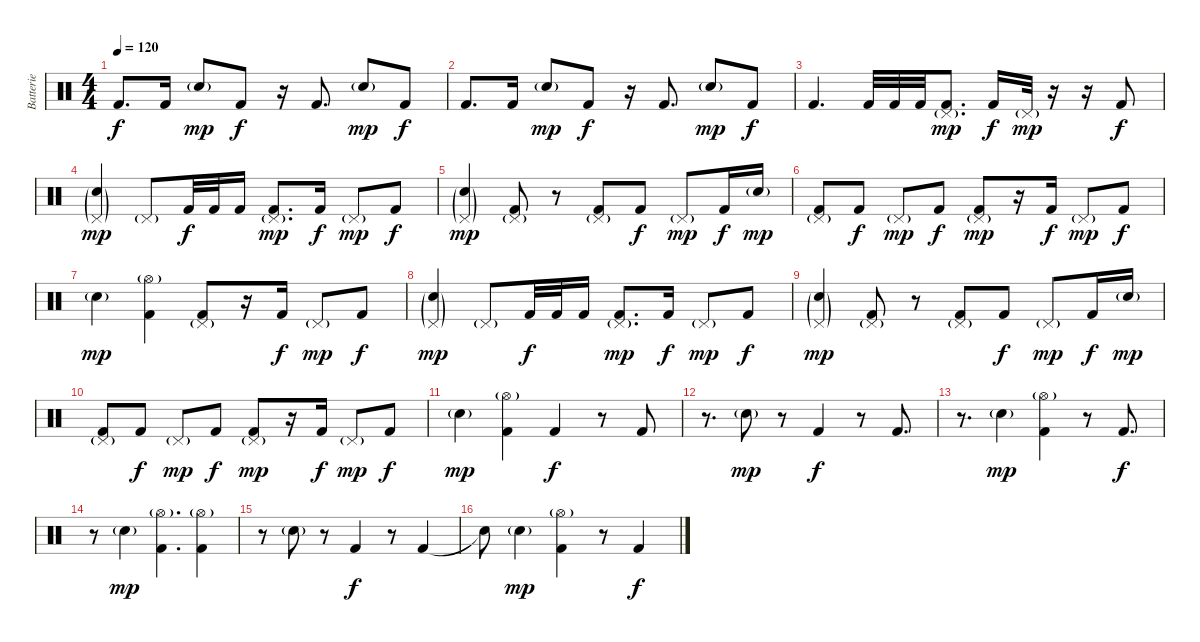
\track ("Batterie" "Batterie") {instrument percussion}
\staff {score}
\articulation defaults
\ts (4 4)
\tempo 120
\clef neutral
\ks c "Kick (hit) 2".8{d dy f} "Kick (hit) 2".16 "Electric Snare (hit)"{g}.8{dy mp} "Kick (hit) 2".8{dy f}
r.16 "Kick (hit) 2".8{d} "Electric Snare (hit)"{g}.8{dy mp} "Kick (hit) 2".8{dy f} |
"Kick (hit) 2".8{d} "Kick (hit) 2".16 "Electric Snare (hit)"{g}.8{dy mp} "Kick (hit) 2".8{dy f} r.16 "Kick (hit) 2".8{d} "Electric Snare (hit)"{g}.8{dy mp} "Kick (hit) 2".8{dy f} |
"Kick (hit) 2".4{d} "Kick (hit) 2".32 "Kick (hit) 2".32 "Kick (hit) 2".32 ("Pedal Hi-Hat (hit)"{g} "Kick (hit) 2").8{d dy mp} "Kick (hit) 2".16{dy f} "Pedal Hi-Hat (hit)"{g}.32{dy mp} r.16 r.16 "Kick (hit) 2".8{dy f} |
("Pedal Hi-Hat (hit)"{g} "Electric Snare (hit)"{g}).4{dy mp} "Pedal Hi-Hat (hit)"{g}.8 "Kick (hit) 2".32{dy f} "Kick (hit) 2".32 "Kick (hit) 2".16 ("Pedal Hi-Hat (hit)"{g} "Kick (hit) 2").8{d dy mp} "Kick (hit) 2".16{dy f} "Pedal Hi-Hat (hit)"{g}.8{dy mp} "Kick (hit) 2".8{dy f} |
("Pedal Hi-Hat (hit)"{g} "Electric Snare (hit)"{g}).4{dy mp} ("Pedal Hi-Hat (hit)"{g} "Kick (hit) 2").8 r.8 ("Pedal Hi-Hat (hit)"{g} "Kick (hit) 2").8 "Kick (hit) 2".8{dy f} "Pedal Hi-Hat (hit)"{g}.8{dy mp} "Kick (hit) 2".16{dy f} "Electric Snare (hit)"{g}.16{dy mp} |
("Pedal Hi-Hat (hit)"{g} "Kick (hit) 2").8 "Kick (hit) 2".8{dy f} "Pedal Hi-Hat (hit)"{g}.8{dy mp} "Kick (hit) 2".8{dy f} ("Pedal Hi-Hat (hit)"{g} "Kick (hit) 2").8{dy mp} r.16 "Kick (hit) 2".16{dy f} "Pedal Hi-Hat (hit)"{g}.8{dy mp} "Kick (hit) 2".8{dy f} |
"Electric Snare (hit)"{g}.4{dy mp} ("Hi-Hat (open)"{g} "Kick (hit) 2").4 ("Pedal Hi-Hat (hit)"{g} "Kick (hit) 2").8 r.16 "Kick (hit) 2".16{dy f} "Pedal Hi-Hat (hit)"{g}.8{dy mp} "Kick (hit) 2".8{dy f} |
("Pedal Hi-Hat (hit)"{g} "Electric Snare (hit)"{g}).4{dy mp} "Pedal Hi-Hat (hit)"{g}.8 "Kick (hit) 2".32{dy f} "Kick (hit) 2".32 "Kick (hit) 2".16 ("Pedal Hi-Hat (hit)"{g} "Kick (hit) 2").8{d dy mp} "Kick (hit) 2".16{dy f} "Pedal Hi-Hat (hit)"{g}.8{dy mp} "Kick (hit) 2".8{dy f} |
("Pedal Hi-Hat (hit)"{g} "Electric Snare (hit)"{g}).4{dy mp} ("Pedal Hi-Hat (hit)"{g} "Kick (hit) 2").8 r.8 ("Pedal Hi-Hat (hit)"{g} "Kick (hit) 2").8 "Kick (hit) 2".8{dy f} "Pedal Hi-Hat (hit)"{g}.8{dy mp} "Kick (hit) 2".16{dy f} "Electric Snare (hit)"{g}.16{dy mp} |
("Pedal Hi-Hat (hit)"{g} "Kick (hit) 2").8 "Kick (hit) 2".8{dy f} "Pedal Hi-Hat (hit)"{g}.8{dy mp} "Kick (hit) 2".8{dy f} ("Pedal Hi-Hat (hit)"{g} "Kick (hit) 2").8{dy mp} r.16 "Kick (hit) 2".16{dy f} "Pedal Hi-Hat (hit)"{g}.8{dy mp} "Kick (hit) 2".8{dy f} |
"Electric Snare (hit)"{g}.4{dy mp} ("Hi-Hat (open)"{g} "Kick (hit) 2").4 "Kick (hit) 2".4{dy f} r.8 "Kick (hit) 2".8 |
r.8{d} "Electric Snare (hit)"{g}.8{dy mp} r.8 "Kick (hit) 2".4{dy f} r.8 "Kick (hit) 2".8{d} |
r.8{d} "Electric Snare (hit)"{g}.4{dy mp} ("Hi-Hat (open)"{g} "Kick (hit) 2").4 r.8 "Kick (hit) 2".8{d dy f} |
r.8 "Electric Snare (hit)"{g}.4{dy mp} ("Hi-Hat (open)"{g} "Kick (hit) 2").4{d} ("Hi-Hat (open)"{g} "Kick (hit) 2").4 |
r.8 "Electric Snare (hit)"{g}.8 r.8 "Kick (hit) 2".4{dy f} r.8 "Kick (hit) 2".4 |
"Snare (hit)"{t}.8 "Electric Snare (hit)"{g}.4{dy mp} ("Hi-Hat (open)"{g} "Kick (hit) 2").4 r.8 "Kick (hit) 2".4{dy f}
